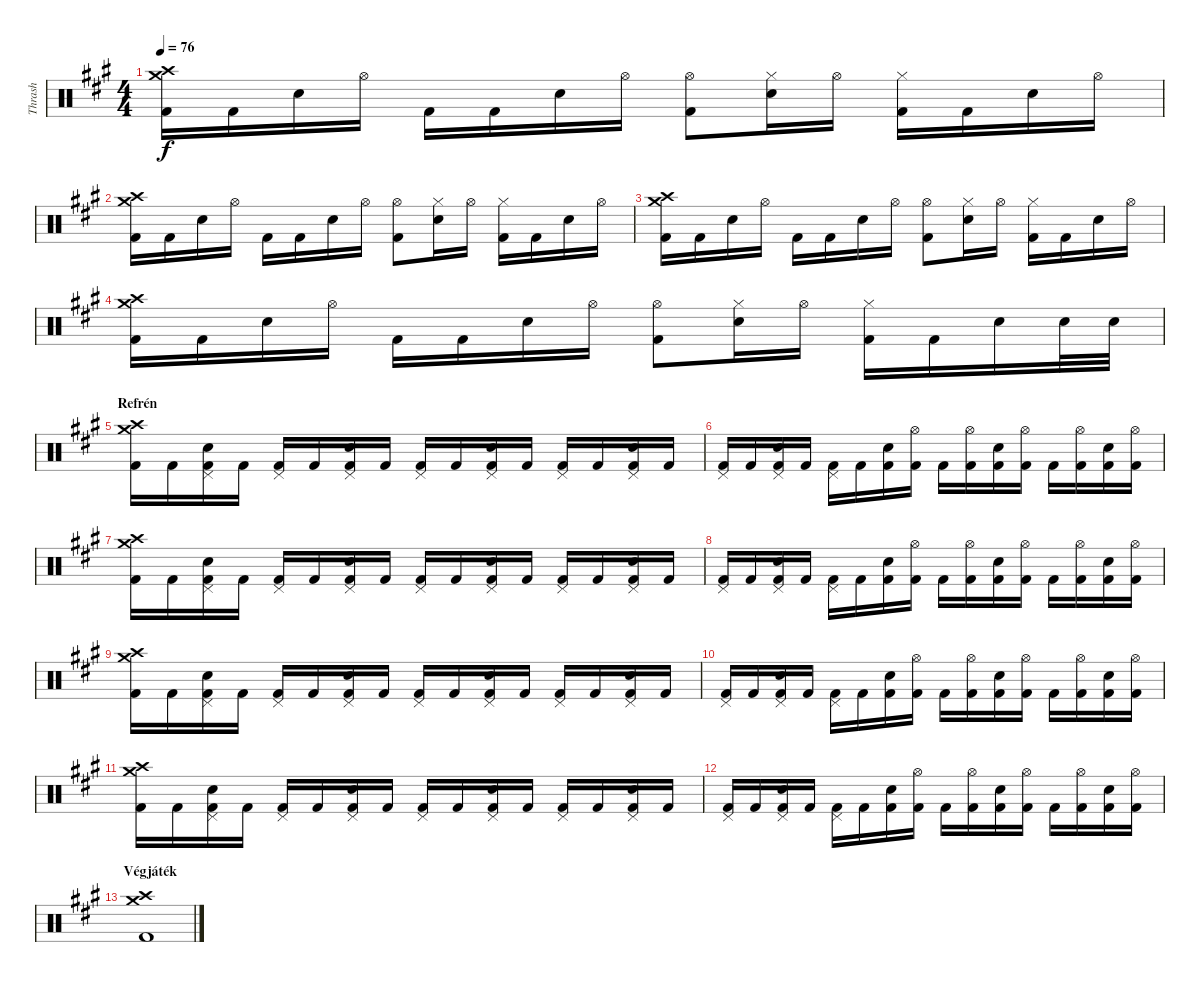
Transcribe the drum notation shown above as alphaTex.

\track ("Thrash" "Thrash") {instrument percussion}
\staff {score}
\articulation defaults
\ts (4 4)
\tempo 76
\clef neutral
\ks a
("Crash medium (hit)" "Crash high (hit)" "Kick (hit) 2").16{dy f} "Kick (hit) 2".16 "Snare (hit) 2".16 "Hi-Hat (open)".16 "Kick (hit) 2".16 "Kick (hit) 2".16 "Snare (hit) 2".16 "Hi-Hat (open)".16 ("Hi-Hat (open)" "Kick (hit) 2").8 ("Hi-Hat (closed)" "Snare (hit) 2").16 "Hi-Hat (open)".16 ("Hi-Hat (closed)" "Kick (hit) 2").16 "Kick (hit) 2".16 "Snare (hit) 2".16 "Hi-Hat (open)".16 |
("Crash medium (hit)" "Crash high (hit)" "Kick (hit) 2").16 "Kick (hit) 2".16 "Snare (hit) 2".16 "Hi-Hat (open)".16 "Kick (hit) 2".16 "Kick (hit) 2".16 "Snare (hit) 2".16 "Hi-Hat (open)".16 ("Hi-Hat (open)" "Kick (hit) 2").8 ("Hi-Hat (closed)" "Snare (hit) 2").16 "Hi-Hat (open)".16 ("Hi-Hat (closed)" "Kick (hit) 2").16 "Kick (hit) 2".16 "Snare (hit) 2".16 "Hi-Hat (open)".16 |
("Crash medium (hit)" "Crash high (hit)" "Kick (hit) 2").16 "Kick (hit) 2".16 "Snare (hit) 2".16 "Hi-Hat (open)".16 "Kick (hit) 2".16 "Kick (hit) 2".16 "Snare (hit) 2".16 "Hi-Hat (open)".16 ("Hi-Hat (open)" "Kick (hit) 2").8 ("Hi-Hat (closed)" "Snare (hit) 2").16 "Hi-Hat (open)".16 ("Hi-Hat (closed)" "Kick (hit) 2").16 "Kick (hit) 2".16 "Snare (hit) 2".16 "Hi-Hat (open)".16 |
("Crash medium (hit)" "Crash high (hit)" "Kick (hit) 2").16 "Kick (hit) 2".16 "Snare (hit) 2".16 "Hi-Hat (open)".16 "Kick (hit) 2".16 "Kick (hit) 2".16 "Snare (hit) 2".16 "Hi-Hat (open)".16 ("Hi-Hat (open)" "Kick (hit) 2").8 ("Hi-Hat (closed)" "Snare (hit) 2").16 "Hi-Hat (open)".16 ("Hi-Hat (closed)" "Kick (hit) 2").16 "Kick (hit) 2".16 "Snare (hit) 2".16 "Snare (hit) 2".32 "Snare (hit) 2".32 |
\section ("" "Refrén")
("Crash medium (hit)" "Crash high (hit)" "Kick (hit) 2").16 "Kick (hit) 2".16 ("Pedal Hi-Hat (hit)" "Snare (hit) 2" "Kick (hit) 2").16 "Kick (hit) 2".16 ("Pedal Hi-Hat (hit)" "Kick (hit) 2").16 "Kick (hit) 2".16 ("Pedal Hi-Hat (hit)" "Snare (hit) 2" "Kick (hit) 2").16 "Kick (hit) 2".16 ("Pedal Hi-Hat (hit)" "Kick (hit) 2").16 "Kick (hit) 2".16 ("Pedal Hi-Hat (hit)" "Snare (hit) 2" "Kick (hit) 2").16 "Kick (hit) 2".16 ("Pedal Hi-Hat (hit)" "Kick (hit) 2").16 "Kick (hit) 2".16 ("Pedal Hi-Hat (hit)" "Snare (hit) 2" "Kick (hit) 2").16 "Kick (hit) 2".16 |
("Pedal Hi-Hat (hit)" "Kick (hit) 2").16 "Kick (hit) 2".16 ("Pedal Hi-Hat (hit)" "Snare (hit) 2" "Kick (hit) 2").16 "Kick (hit) 2".16 ("Pedal Hi-Hat (hit)" "Kick (hit) 2").16 "Kick (hit) 2".16 ("Snare (hit) 2" "Kick (hit) 2").16 ("Hi-Hat (open)" "Kick (hit) 2").16 "Kick (hit) 2".16 ("Hi-Hat (open)" "Kick (hit) 2").16 ("Snare (hit) 2" "Kick (hit) 2").16 ("Hi-Hat (open)" "Kick (hit) 2").16 "Kick (hit) 2".16 ("Hi-Hat (open)" "Kick (hit) 2").16 ("Snare (hit) 2" "Kick (hit) 2").16 ("Hi-Hat (open)" "Kick (hit) 2").16 |
("Crash medium (hit)" "Crash high (hit)" "Kick (hit) 2").16 "Kick (hit) 2".16 ("Pedal Hi-Hat (hit)" "Snare (hit) 2" "Kick (hit) 2").16 "Kick (hit) 2".16 ("Pedal Hi-Hat (hit)" "Kick (hit) 2").16 "Kick (hit) 2".16 ("Pedal Hi-Hat (hit)" "Snare (hit) 2" "Kick (hit) 2").16 "Kick (hit) 2".16 ("Pedal Hi-Hat (hit)" "Kick (hit) 2").16 "Kick (hit) 2".16 ("Pedal Hi-Hat (hit)" "Snare (hit) 2" "Kick (hit) 2").16 "Kick (hit) 2".16 ("Pedal Hi-Hat (hit)" "Kick (hit) 2").16 "Kick (hit) 2".16 ("Pedal Hi-Hat (hit)" "Snare (hit) 2" "Kick (hit) 2").16 "Kick (hit) 2".16 |
("Pedal Hi-Hat (hit)" "Kick (hit) 2").16 "Kick (hit) 2".16 ("Pedal Hi-Hat (hit)" "Snare (hit) 2" "Kick (hit) 2").16 "Kick (hit) 2".16 ("Pedal Hi-Hat (hit)" "Kick (hit) 2").16 "Kick (hit) 2".16 ("Snare (hit) 2" "Kick (hit) 2").16 ("Hi-Hat (open)" "Kick (hit) 2").16 "Kick (hit) 2".16 ("Hi-Hat (open)" "Kick (hit) 2").16 ("Snare (hit) 2" "Kick (hit) 2").16 ("Hi-Hat (open)" "Kick (hit) 2").16 "Kick (hit) 2".16 ("Hi-Hat (open)" "Kick (hit) 2").16 ("Snare (hit) 2" "Kick (hit) 2").16 ("Hi-Hat (open)" "Kick (hit) 2").16 |
("Crash medium (hit)" "Crash high (hit)" "Kick (hit) 2").16 "Kick (hit) 2".16 ("Pedal Hi-Hat (hit)" "Snare (hit) 2" "Kick (hit) 2").16 "Kick (hit) 2".16 ("Pedal Hi-Hat (hit)" "Kick (hit) 2").16 "Kick (hit) 2".16 ("Pedal Hi-Hat (hit)" "Snare (hit) 2" "Kick (hit) 2").16 "Kick (hit) 2".16 ("Pedal Hi-Hat (hit)" "Kick (hit) 2").16 "Kick (hit) 2".16 ("Pedal Hi-Hat (hit)" "Snare (hit) 2" "Kick (hit) 2").16 "Kick (hit) 2".16 ("Pedal Hi-Hat (hit)" "Kick (hit) 2").16 "Kick (hit) 2".16 ("Pedal Hi-Hat (hit)" "Snare (hit) 2" "Kick (hit) 2").16 "Kick (hit) 2".16 |
("Pedal Hi-Hat (hit)" "Kick (hit) 2").16 "Kick (hit) 2".16 ("Pedal Hi-Hat (hit)" "Snare (hit) 2" "Kick (hit) 2").16 "Kick (hit) 2".16 ("Pedal Hi-Hat (hit)" "Kick (hit) 2").16 "Kick (hit) 2".16 ("Snare (hit) 2" "Kick (hit) 2").16 ("Hi-Hat (open)" "Kick (hit) 2").16 "Kick (hit) 2".16 ("Hi-Hat (open)" "Kick (hit) 2").16 ("Snare (hit) 2" "Kick (hit) 2").16 ("Hi-Hat (open)" "Kick (hit) 2").16 "Kick (hit) 2".16 ("Hi-Hat (open)" "Kick (hit) 2").16 ("Snare (hit) 2" "Kick (hit) 2").16 ("Hi-Hat (open)" "Kick (hit) 2").16 |
("Crash medium (hit)" "Crash high (hit)" "Kick (hit) 2").16 "Kick (hit) 2".16 ("Pedal Hi-Hat (hit)" "Snare (hit) 2" "Kick (hit) 2").16 "Kick (hit) 2".16 ("Pedal Hi-Hat (hit)" "Kick (hit) 2").16 "Kick (hit) 2".16 ("Pedal Hi-Hat (hit)" "Snare (hit) 2" "Kick (hit) 2").16 "Kick (hit) 2".16 ("Pedal Hi-Hat (hit)" "Kick (hit) 2").16 "Kick (hit) 2".16 ("Pedal Hi-Hat (hit)" "Snare (hit) 2" "Kick (hit) 2").16 "Kick (hit) 2".16 ("Pedal Hi-Hat (hit)" "Kick (hit) 2").16 "Kick (hit) 2".16 ("Pedal Hi-Hat (hit)" "Snare (hit) 2" "Kick (hit) 2").16 "Kick (hit) 2".16 |
("Pedal Hi-Hat (hit)" "Kick (hit) 2").16 "Kick (hit) 2".16 ("Pedal Hi-Hat (hit)" "Snare (hit) 2" "Kick (hit) 2").16 "Kick (hit) 2".16 ("Pedal Hi-Hat (hit)" "Kick (hit) 2").16 "Kick (hit) 2".16 ("Snare (hit) 2" "Kick (hit) 2").16 ("Hi-Hat (open)" "Kick (hit) 2").16 "Kick (hit) 2".16 ("Hi-Hat (open)" "Kick (hit) 2").16 ("Snare (hit) 2" "Kick (hit) 2").16 ("Hi-Hat (open)" "Kick (hit) 2").16 "Kick (hit) 2".16 ("Hi-Hat (open)" "Kick (hit) 2").16 ("Snare (hit) 2" "Kick (hit) 2").16 ("Hi-Hat (open)" "Kick (hit) 2").16 |
\section ("" "Végjáték")
("Crash medium (hit)" "Crash high (hit)" "Kick (hit) 2").1
